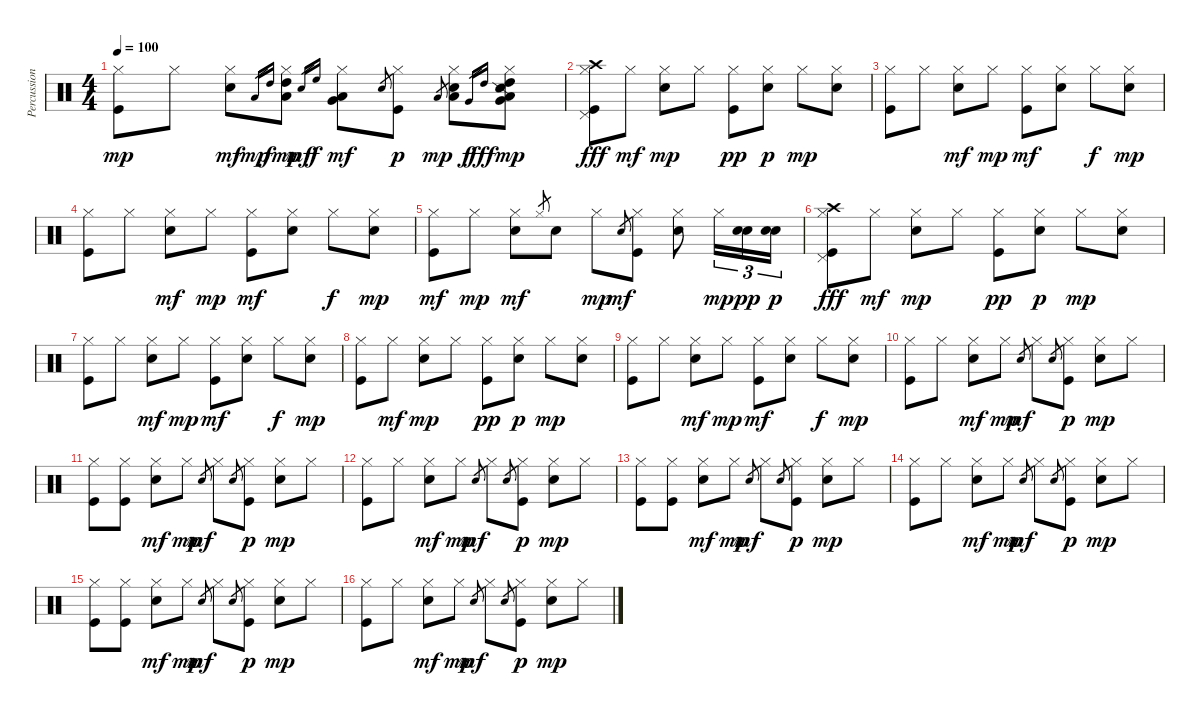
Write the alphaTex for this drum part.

\track ("Percussions" "Percussion") {instrument percussion}
\staff {score}
\articulation defaults
\ts (4 4)
\tempo 100
\clef neutral
\ks c
("Kick (hit)" "Hi-Hat (closed)").8{dy mp} "Hi-Hat (closed)".8 ("Snare (hit) 2" "Hi-Hat (closed)").8{dy mf} "Low Tom (hit)".16{gr dy mp} "High Tom (hit)".16{gr dy f} ("Hi-Hat (closed)" "Low Tom (hit)" "High Tom (hit)").8{dy mp} "Snare (hit) 2".16{gr dy mf} "High Floor Tom (hit)".16{gr dy f} ("Hi-Hat (closed)" "Very Low Tom (hit)" "Low Tom (hit)").8{dy mf} "Snare (hit) 2".8{gr} ("Kick (hit)" "Hi-Hat (closed)").8{dy p} "Low Tom (hit)".8{gr dy mp} ("Snare (hit) 2" "Hi-Hat (closed)" "Low Tom (hit)").8 "Very Low Tom (hit)".16{gr dy f} "High Tom (hit)".16{gr dy fff} ("Snare (side stick) 2" "Very Low Tom (hit)" "Low Floor Tom (hit)" "Hi-Hat (closed)" "High Tom (hit)").8{dy mp} |
("Kick (hit)" "Hi-Hat (closed)" "Pedal Hi-Hat (hit)" "Crash high (hit)").8{dy fff} "Hi-Hat (closed)".8{dy mf} ("Snare (hit) 2" "Hi-Hat (closed)").8{dy mp} "Hi-Hat (closed)".8 ("Kick (hit)" "Hi-Hat (closed)").8{dy pp} ("Snare (hit) 2" "Hi-Hat (closed)").8{dy p} "Hi-Hat (closed)".8{dy mp} ("Snare (hit) 2" "Hi-Hat (closed)").8 |
("Kick (hit)" "Hi-Hat (closed)").8 "Hi-Hat (closed)".8 ("Snare (hit) 2" "Hi-Hat (closed)").8{dy mf} "Hi-Hat (closed)".8{dy mp} ("Kick (hit)" "Hi-Hat (closed)").8{dy mf} ("Snare (hit) 2" "Hi-Hat (closed)").8 "Hi-Hat (closed)".8{dy f} ("Snare (hit) 2" "Hi-Hat (closed)").8{dy mp} |
("Kick (hit)" "Hi-Hat (closed)").8 "Hi-Hat (closed)".8 ("Snare (hit) 2" "Hi-Hat (closed)").8{dy mf} "Hi-Hat (closed)".8{dy mp} ("Kick (hit)" "Hi-Hat (closed)").8{dy mf} ("Snare (hit) 2" "Hi-Hat (closed)").8 "Hi-Hat (closed)".8{dy f} ("Snare (hit) 2" "Hi-Hat (closed)").8{dy mp} |
("Kick (hit)" "Hi-Hat (closed)").8{dy mf} "Hi-Hat (closed)".8{dy mp} ("Snare (hit) 2" "Hi-Hat (closed)").8{dy mf} "Hi-Hat (closed)".8{gr} "Snare (hit) 2".8 "Hi-Hat (closed)".8{dy mp} "Snare (hit) 2".8{gr dy mf} ("Kick (hit)" "Hi-Hat (closed)").8 ("Snare (hit) 2" "Hi-Hat (closed)").8 "Hi-Hat (closed)".16{tu (3 2) dy mp} ("Snare (hit) 2" "Snare (hit) 2").16{tu (3 2) dy pp} ("Snare (hit) 2" "Snare (hit) 2").16{tu (3 2) dy p} |
("Kick (hit)" "Hi-Hat (closed)" "Pedal Hi-Hat (hit)" "Crash high (hit)").8{dy fff} "Hi-Hat (closed)".8{dy mf} ("Snare (hit) 2" "Hi-Hat (closed)").8{dy mp} "Hi-Hat (closed)".8 ("Kick (hit)" "Hi-Hat (closed)").8{dy pp} ("Snare (hit) 2" "Hi-Hat (closed)").8{dy p} "Hi-Hat (closed)".8{dy mp} ("Snare (hit) 2" "Hi-Hat (closed)").8 |
("Kick (hit)" "Hi-Hat (closed)").8 "Hi-Hat (closed)".8 ("Snare (hit) 2" "Hi-Hat (closed)").8{dy mf} "Hi-Hat (closed)".8{dy mp} ("Kick (hit)" "Hi-Hat (closed)").8{dy mf} ("Snare (hit) 2" "Hi-Hat (closed)").8 "Hi-Hat (closed)".8{dy f} ("Snare (hit) 2" "Hi-Hat (closed)").8{dy mp} |
("Kick (hit)" "Hi-Hat (closed)").8 "Hi-Hat (closed)".8{dy mf} ("Snare (hit) 2" "Hi-Hat (closed)").8{dy mp} "Hi-Hat (closed)".8 ("Kick (hit)" "Hi-Hat (closed)").8{dy pp} ("Snare (hit) 2" "Hi-Hat (closed)").8{dy p} "Hi-Hat (closed)".8{dy mp} ("Snare (hit) 2" "Hi-Hat (closed)").8 |
("Kick (hit)" "Hi-Hat (closed)").8 "Hi-Hat (closed)".8 ("Snare (hit) 2" "Hi-Hat (closed)").8{dy mf} "Hi-Hat (closed)".8{dy mp} ("Kick (hit)" "Hi-Hat (closed)").8{dy mf} ("Snare (hit) 2" "Hi-Hat (closed)").8 "Hi-Hat (closed)".8{dy f} ("Snare (hit) 2" "Hi-Hat (closed)").8{dy mp} |
("Kick (hit)" "Hi-Hat (closed)").8 "Hi-Hat (closed)".8 ("Snare (hit) 2" "Hi-Hat (closed)").8{dy mf} "Hi-Hat (closed)".8{dy mp} "Snare (hit) 2".8{gr dy mf} "Hi-Hat (closed)".8 "Snare (hit) 2".8{gr} ("Kick (hit)" "Hi-Hat (closed)").8{dy p} ("Snare (hit) 2" "Hi-Hat (closed)").8{dy mp} "Hi-Hat (closed)".8 |
("Kick (hit)" "Hi-Hat (closed)").8 ("Kick (hit)" "Hi-Hat (closed)").8 ("Snare (hit) 2" "Hi-Hat (closed)").8{dy mf} "Hi-Hat (closed)".8{dy mp} "Snare (hit) 2".8{gr dy mf} "Hi-Hat (closed)".8 "Snare (hit) 2".8{gr} ("Kick (hit)" "Hi-Hat (closed)").8{dy p} ("Snare (hit) 2" "Hi-Hat (closed)").8{dy mp} "Hi-Hat (closed)".8 |
("Kick (hit)" "Hi-Hat (closed)").8 "Hi-Hat (closed)".8 ("Snare (hit) 2" "Hi-Hat (closed)").8{dy mf} "Hi-Hat (closed)".8{dy mp} "Snare (hit) 2".8{gr dy mf} "Hi-Hat (closed)".8 "Snare (hit) 2".8{gr} ("Kick (hit)" "Hi-Hat (closed)").8{dy p} ("Snare (hit) 2" "Hi-Hat (closed)").8{dy mp} "Hi-Hat (closed)".8 |
("Kick (hit)" "Hi-Hat (closed)").8 ("Kick (hit)" "Hi-Hat (closed)").8 ("Snare (hit) 2" "Hi-Hat (closed)").8{dy mf} "Hi-Hat (closed)".8{dy mp} "Snare (hit) 2".8{gr dy mf} "Hi-Hat (closed)".8 "Snare (hit) 2".8{gr} ("Kick (hit)" "Hi-Hat (closed)").8{dy p} ("Snare (hit) 2" "Hi-Hat (closed)").8{dy mp} "Hi-Hat (closed)".8 |
("Kick (hit)" "Hi-Hat (closed)").8 "Hi-Hat (closed)".8 ("Snare (hit) 2" "Hi-Hat (closed)").8{dy mf} "Hi-Hat (closed)".8{dy mp} "Snare (hit) 2".8{gr dy mf} "Hi-Hat (closed)".8 "Snare (hit) 2".8{gr} ("Kick (hit)" "Hi-Hat (closed)").8{dy p} ("Snare (hit) 2" "Hi-Hat (closed)").8{dy mp} "Hi-Hat (closed)".8 |
("Kick (hit)" "Hi-Hat (closed)").8 ("Kick (hit)" "Hi-Hat (closed)").8 ("Snare (hit) 2" "Hi-Hat (closed)").8{dy mf} "Hi-Hat (closed)".8{dy mp} "Snare (hit) 2".8{gr dy mf} "Hi-Hat (closed)".8 "Snare (hit) 2".8{gr} ("Kick (hit)" "Hi-Hat (closed)").8{dy p} ("Snare (hit) 2" "Hi-Hat (closed)").8{dy mp} "Hi-Hat (closed)".8 |
("Kick (hit)" "Hi-Hat (closed)").8 "Hi-Hat (closed)".8 ("Snare (hit) 2" "Hi-Hat (closed)").8{dy mf} "Hi-Hat (closed)".8{dy mp} "Snare (hit) 2".8{gr dy mf} "Hi-Hat (closed)".8 "Snare (hit) 2".8{gr} ("Kick (hit)" "Hi-Hat (closed)").8{dy p} ("Snare (hit) 2" "Hi-Hat (closed)").8{dy mp} "Hi-Hat (closed)".8
